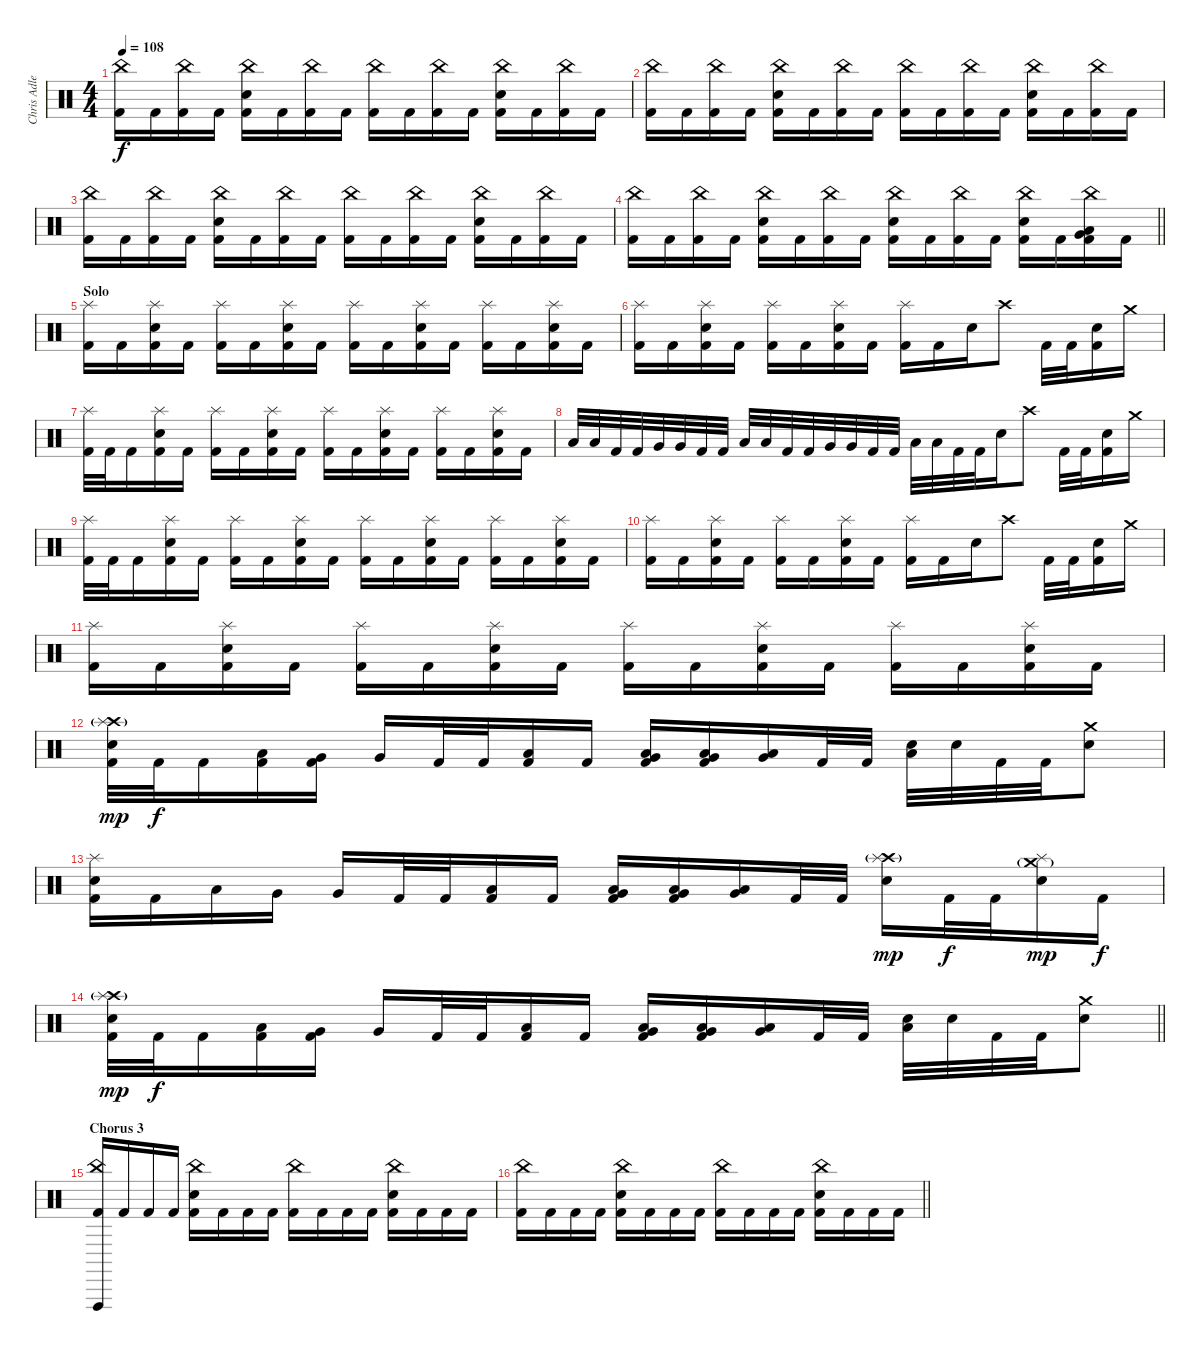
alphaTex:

\track ("Chris Adler" "Chris Adle") {instrument percussion}
\staff {score}
\articulation defaults
\ts (4 4)
\tempo 108
\clef neutral
\ks c
("China (hit)" "Kick (hit) 2").16{dy f} "Kick (hit) 2".16 ("China (hit)" "Kick (hit) 2").16 "Kick (hit) 2".16 ("China (hit)" "Electric Snare (hit)" "Kick (hit) 2").16 "Kick (hit) 2".16 ("China (hit)" "Kick (hit) 2").16 "Kick (hit) 2".16 ("China (hit)" "Kick (hit) 2").16 "Kick (hit) 2".16 ("China (hit)" "Kick (hit) 2").16 "Kick (hit) 2".16 ("China (hit)" "Electric Snare (hit)" "Kick (hit) 2").16 "Kick (hit) 2".16 ("China (hit)" "Kick (hit) 2").16 "Kick (hit) 2".16 |
("China (hit)" "Kick (hit) 2").16 "Kick (hit) 2".16 ("China (hit)" "Kick (hit) 2").16 "Kick (hit) 2".16 ("China (hit)" "Electric Snare (hit)" "Kick (hit) 2").16 "Kick (hit) 2".16 ("China (hit)" "Kick (hit) 2").16 "Kick (hit) 2".16 ("China (hit)" "Kick (hit) 2").16 "Kick (hit) 2".16 ("China (hit)" "Kick (hit) 2").16 "Kick (hit) 2".16 ("China (hit)" "Electric Snare (hit)" "Kick (hit) 2").16 "Kick (hit) 2".16 ("China (hit)" "Kick (hit) 2").16 "Kick (hit) 2".16 |
("China (hit)" "Kick (hit) 2").16 "Kick (hit) 2".16 ("China (hit)" "Kick (hit) 2").16 "Kick (hit) 2".16 ("China (hit)" "Electric Snare (hit)" "Kick (hit) 2").16 "Kick (hit) 2".16 ("China (hit)" "Kick (hit) 2").16 "Kick (hit) 2".16 ("China (hit)" "Kick (hit) 2").16 "Kick (hit) 2".16 ("China (hit)" "Kick (hit) 2").16 "Kick (hit) 2".16 ("China (hit)" "Electric Snare (hit)" "Kick (hit) 2").16 "Kick (hit) 2".16 ("China (hit)" "Kick (hit) 2").16 "Kick (hit) 2".16 |
\barLineRight lightlight
("China (hit)" "Kick (hit) 2").16 "Kick (hit) 2".16 ("China (hit)" "Kick (hit) 2").16 "Kick (hit) 2".16 ("China (hit)" "Electric Snare (hit)" "Kick (hit) 2").16 "Kick (hit) 2".16 ("China (hit)" "Kick (hit) 2").16 "Kick (hit) 2".16 ("China (hit)" "Electric Snare (hit)" "Kick (hit) 2").16 "Kick (hit) 2".16 ("China (hit)" "Kick (hit) 2").16 "Kick (hit) 2".16 ("China (hit)" "Electric Snare (hit)" "Kick (hit) 2").16 "Kick (hit) 2".16 ("China (hit)" "Very Low Tom (hit)" "Low Floor Tom (hit)" "Kick (hit) 2").16 "Kick (hit) 2".16 |
\section ("" "Solo")
("Splash (hit)" "Kick (hit) 2").16 "Kick (hit) 2".16 ("Splash (hit)" "Electric Snare (hit)" "Kick (hit) 2").16 "Kick (hit) 2".16 ("Splash (hit)" "Kick (hit) 2").16 "Kick (hit) 2".16 ("Splash (hit)" "Electric Snare (hit)" "Kick (hit) 2").16 "Kick (hit) 2".16 ("Splash (hit)" "Kick (hit) 2").16 "Kick (hit) 2".16 ("Splash (hit)" "Electric Snare (hit)" "Kick (hit) 2").16 "Kick (hit) 2".16 ("Splash (hit)" "Kick (hit) 2").16 "Kick (hit) 2".16 ("Splash (hit)" "Electric Snare (hit)" "Kick (hit) 2").16 "Kick (hit) 2".16 |
("Splash (hit)" "Kick (hit) 2").16 "Kick (hit) 2".16 ("Splash (hit)" "Electric Snare (hit)" "Kick (hit) 2").16 "Kick (hit) 2".16 ("Splash (hit)" "Kick (hit) 2").16 "Kick (hit) 2".16 ("Splash (hit)" "Electric Snare (hit)" "Kick (hit) 2").16 "Kick (hit) 2".16 ("Splash (hit)" "Kick (hit) 2").16 "Kick (hit) 2".16 "Electric Snare (hit)".16 "Crash high (hit)".8 "Kick (hit) 2".32 "Kick (hit) 2".32 ("Electric Snare (hit)" "Kick (hit) 2").16 "Crash medium (hit)".16 |
("Splash (hit)" "Kick (hit) 2").32 "Kick (hit) 2".32 "Kick (hit) 2".16 ("Splash (hit)" "Electric Snare (hit)" "Kick (hit) 2").16 "Kick (hit) 2".16 ("Splash (hit)" "Kick (hit) 2").16 "Kick (hit) 2".16 ("Splash (hit)" "Electric Snare (hit)" "Kick (hit) 2").16 "Kick (hit) 2".16 ("Splash (hit)" "Kick (hit) 2").16 "Kick (hit) 2".16 ("Splash (hit)" "Electric Snare (hit)" "Kick (hit) 2").16 "Kick (hit) 2".16 ("Splash (hit)" "Kick (hit) 2").16 "Kick (hit) 2".16 ("Splash (hit)" "Electric Snare (hit)" "Kick (hit) 2").16 "Kick (hit) 2".16 |
"Low Tom (hit)".32 "Low Tom (hit)".32 "Kick (hit) 2".32 "Kick (hit) 2".32 "Very Low Tom (hit)".32 "Very Low Tom (hit)".32 "Kick (hit) 2".32 "Kick (hit) 2".32 "Low Floor Tom (hit)".32 "Low Floor Tom (hit)".32 "Kick (hit) 2".32 "Kick (hit) 2".32 "Very Low Tom (hit)".32 "Very Low Tom (hit)".32 "Kick (hit) 2".32 "Kick (hit) 2".32 "Low Floor Tom (hit)".32 "Low Floor Tom (hit)".32 "Kick (hit) 2".32 "Kick (hit) 2".32 "Electric Snare (hit)".16 "Crash high (hit)".8 "Kick (hit) 2".32 "Kick (hit) 2".32 ("Electric Snare (hit)" "Kick (hit) 2").16 "Crash medium (hit)".16 |
("Splash (hit)" "Kick (hit) 2").32 "Kick (hit) 2".32 "Kick (hit) 2".16 ("Splash (hit)" "Electric Snare (hit)" "Kick (hit) 2").16 "Kick (hit) 2".16 ("Splash (hit)" "Kick (hit) 2").16 "Kick (hit) 2".16 ("Splash (hit)" "Electric Snare (hit)" "Kick (hit) 2").16 "Kick (hit) 2".16 ("Splash (hit)" "Kick (hit) 2").16 "Kick (hit) 2".16 ("Splash (hit)" "Electric Snare (hit)" "Kick (hit) 2").16 "Kick (hit) 2".16 ("Splash (hit)" "Kick (hit) 2").16 "Kick (hit) 2".16 ("Splash (hit)" "Electric Snare (hit)" "Kick (hit) 2").16 "Kick (hit) 2".16 |
("Splash (hit)" "Kick (hit) 2").16 "Kick (hit) 2".16 ("Splash (hit)" "Electric Snare (hit)" "Kick (hit) 2").16 "Kick (hit) 2".16 ("Splash (hit)" "Kick (hit) 2").16 "Kick (hit) 2".16 ("Splash (hit)" "Electric Snare (hit)" "Kick (hit) 2").16 "Kick (hit) 2".16 ("Splash (hit)" "Kick (hit) 2").16 "Kick (hit) 2".16 "Electric Snare (hit)".16 "Crash high (hit)".8 "Kick (hit) 2".32 "Kick (hit) 2".32 ("Electric Snare (hit)" "Kick (hit) 2").16 "Crash medium (hit)".16 |
("Splash (hit)" "Kick (hit) 2").16 "Kick (hit) 2".16 ("Splash (hit)" "Electric Snare (hit)" "Kick (hit) 2").16 "Kick (hit) 2".16 ("Splash (hit)" "Kick (hit) 2").16 "Kick (hit) 2".16 ("Splash (hit)" "Electric Snare (hit)" "Kick (hit) 2").16 "Kick (hit) 2".16 ("Splash (hit)" "Kick (hit) 2").16 "Kick (hit) 2".16 ("Splash (hit)" "Electric Snare (hit)" "Kick (hit) 2").16 "Kick (hit) 2".16 ("Splash (hit)" "Kick (hit) 2").16 "Kick (hit) 2".16 ("Splash (hit)" "Electric Snare (hit)" "Kick (hit) 2").16 "Kick (hit) 2".16 |
("Crash high (hit)"{g} "Splash (hit)" "Electric Snare (hit)" "Kick (hit) 2").32{dy mp} "Kick (hit) 2".32{dy f} "Kick (hit) 2".16 ("Low Tom (hit)" "Kick (hit) 2").16 ("Very Low Tom (hit)" "Kick (hit) 2").16 "Very Low Tom (hit)".16 "Kick (hit) 2".32 "Kick (hit) 2".32 ("Low Floor Tom (hit)" "Kick (hit) 2").16 "Kick (hit) 2".16 ("Very Low Tom (hit)" "Low Floor Tom (hit)" "Kick (hit) 2").16 ("Very Low Tom (hit)" "Low Floor Tom (hit)" "Kick (hit) 2").16 ("Very Low Tom (hit)" "Low Floor Tom (hit)").16 "Kick (hit) 2".32 "Kick (hit) 2".32 ("Electric Snare (hit)" "Low Floor Tom (hit)").32 "Electric Snare (hit)".32 "Kick (hit) 2".32 "Kick (hit) 2".32 ("Crash medium (hit)" "Electric Snare (hit)").8 |
("Splash (hit)" "Electric Snare (hit)" "Kick (hit) 2").16 "Kick (hit) 2".16 "Low Tom (hit)".16 "Very Low Tom (hit)".16 "Very Low Tom (hit)".16 "Kick (hit) 2".32 "Kick (hit) 2".32 ("Low Floor Tom (hit)" "Kick (hit) 2").16 "Kick (hit) 2".16 ("Very Low Tom (hit)" "Low Floor Tom (hit)" "Kick (hit) 2").16 ("Very Low Tom (hit)" "Low Floor Tom (hit)" "Kick (hit) 2").16 ("Very Low Tom (hit)" "Low Floor Tom (hit)").16 "Kick (hit) 2".32 "Kick (hit) 2".32 ("Crash high (hit)"{g} "Splash (hit)" "Electric Snare (hit)").16{dy mp} "Kick (hit) 2".32{dy f} "Kick (hit) 2".32 ("Crash medium (hit)"{g} "Splash (hit)" "Electric Snare (hit)").16{dy mp} "Kick (hit) 2".16{dy f} |
\barLineRight lightlight
("Crash high (hit)"{g} "Splash (hit)" "Electric Snare (hit)" "Kick (hit) 2").32{dy mp} "Kick (hit) 2".32{dy f} "Kick (hit) 2".16 ("Low Tom (hit)" "Kick (hit) 2").16 ("Very Low Tom (hit)" "Kick (hit) 2").16 "Very Low Tom (hit)".16 "Kick (hit) 2".32 "Kick (hit) 2".32 ("Low Floor Tom (hit)" "Kick (hit) 2").16 "Kick (hit) 2".16 ("Very Low Tom (hit)" "Low Floor Tom (hit)" "Kick (hit) 2").16 ("Very Low Tom (hit)" "Low Floor Tom (hit)" "Kick (hit) 2").16 ("Very Low Tom (hit)" "Low Floor Tom (hit)").16 "Kick (hit) 2".32 "Kick (hit) 2".32 ("Electric Snare (hit)" "Low Floor Tom (hit)").32 "Electric Snare (hit)".32 "Kick (hit) 2".32 "Kick (hit) 2".32 ("Crash medium (hit)" "Electric Snare (hit)").8 |
\section ("" "Chorus 3")
("China (hit)" "Vibraslap (hit)" "Kick (hit) 2").16 "Kick (hit) 2".16 "Kick (hit) 2".16 "Kick (hit) 2".16 ("China (hit)" "Electric Snare (hit)" "Kick (hit) 2").16 "Kick (hit) 2".16 "Kick (hit) 2".16 "Kick (hit) 2".16 ("China (hit)" "Kick (hit) 2").16 "Kick (hit) 2".16 "Kick (hit) 2".16 "Kick (hit) 2".16 ("China (hit)" "Electric Snare (hit)" "Kick (hit) 2").16 "Kick (hit) 2".16 "Kick (hit) 2".16 "Kick (hit) 2".16 |
\barLineRight lightlight
("China (hit)" "Kick (hit) 2").16 "Kick (hit) 2".16 "Kick (hit) 2".16 "Kick (hit) 2".16 ("China (hit)" "Electric Snare (hit)" "Kick (hit) 2").16 "Kick (hit) 2".16 "Kick (hit) 2".16 "Kick (hit) 2".16 ("China (hit)" "Kick (hit) 2").16 "Kick (hit) 2".16 "Kick (hit) 2".16 "Kick (hit) 2".16 ("China (hit)" "Electric Snare (hit)" "Kick (hit) 2").16 "Kick (hit) 2".16 "Kick (hit) 2".16 "Kick (hit) 2".16
